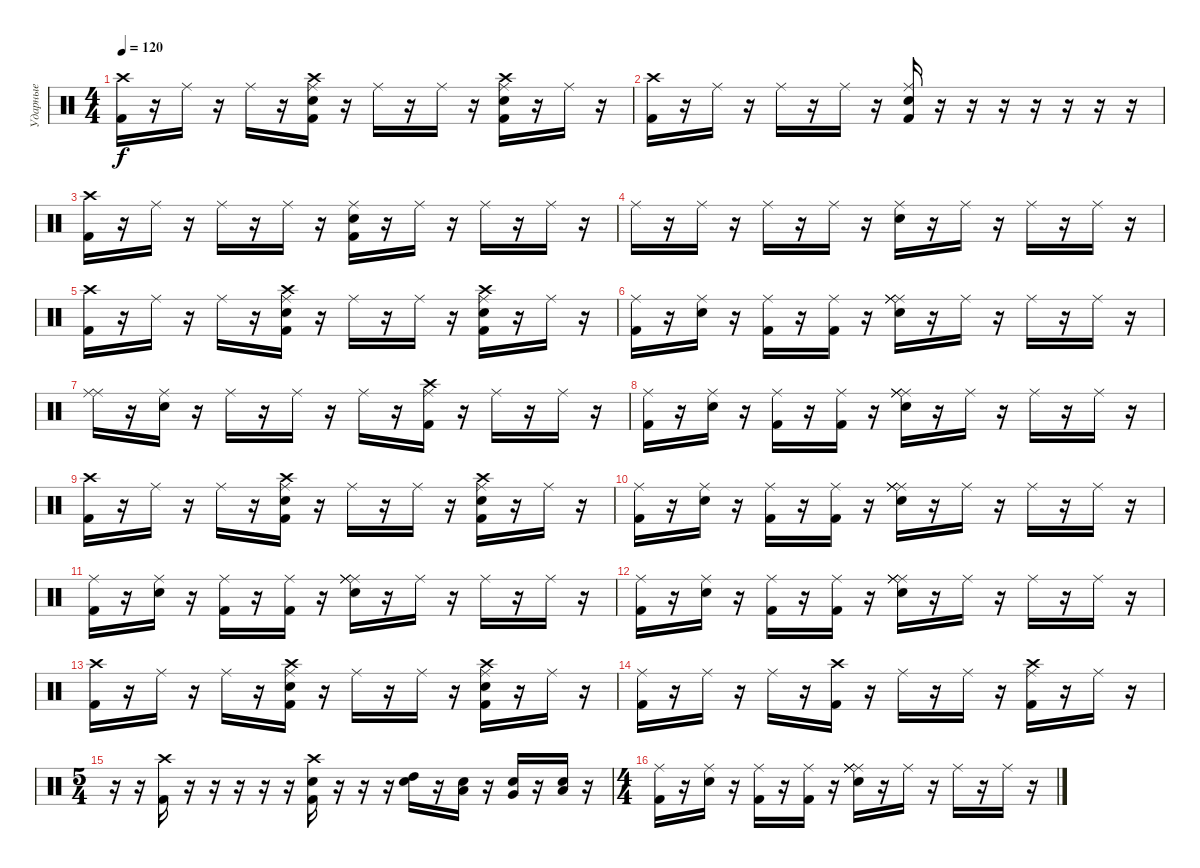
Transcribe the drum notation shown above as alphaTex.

\track ("Ударные" "Ударные") {instrument percussion}
\staff {score}
\articulation defaults
\ts (4 4)
\tempo 120
\clef neutral
\ks c
("Crash high (hit)" "Kick (hit) 2").16{dy f} r.16 "Ride (middle)".16 r.16 "Ride (middle)".16 r.16 ("Crash high (hit)" "Snare (hit) 2" "Kick (hit) 2" "Ride (middle)").16 r.16 "Ride (middle)".16 r.16 "Ride (middle)".16 r.16 ("Crash high (hit)" "Kick (hit) 2" "Snare (hit) 2" "Ride (middle)").16 r.16 "Ride (middle)".16 r.16 |
("Kick (hit) 2" "Crash high (hit)").16 r.16 "Ride (middle)".16 r.16 "Ride (middle)".16 r.16 "Ride (middle)".16 r.16 ("Snare (hit) 2" "Ride (middle)" "Kick (hit) 2").16 r.16 r.16 r.16 r.16 r.16 r.16 r.16 |
("Kick (hit) 2" "Crash high (hit)").16 r.16 "Ride (middle)".16 r.16 "Ride (middle)".16 r.16 "Ride (middle)".16 r.16 ("Snare (hit) 2" "Ride (middle)" "Kick (hit) 2").16 r.16 "Ride (middle)".16 r.16 "Ride (middle)".16 r.16 "Ride (middle)".16 r.16 |
"Ride (middle)".16 r.16 "Ride (middle)".16 r.16 "Ride (middle)".16 r.16 "Ride (middle)".16 r.16 ("Snare (hit) 2" "Ride (middle)").16 r.16 "Ride (middle)".16 r.16 "Ride (middle)".16 r.16 "Ride (middle)".16 r.16 |
("Crash high (hit)" "Kick (hit) 2").16 r.16 "Ride (middle)".16 r.16 "Ride (middle)".16 r.16 ("Crash high (hit)" "Snare (hit) 2" "Kick (hit) 2" "Ride (middle)").16 r.16 "Ride (middle)".16 r.16 "Ride (middle)".16 r.16 ("Crash high (hit)" "Kick (hit) 2" "Snare (hit) 2" "Ride (middle)").16 r.16 "Ride (middle)".16 r.16 |
("Ride (middle)" "Kick (hit) 2").16 r.16 ("Ride (middle)" "Snare (hit) 2").16 r.16 ("Ride (middle)" "Kick (hit) 2").16 r.16 ("Ride (middle)" "Kick (hit) 2").16 r.16 ("Ride (middle)" "Ride (middle)" "Ride (middle)" "Ride (middle)" "Snare (hit) 2").16 r.16 "Ride (middle)".16 r.16 "Ride (middle)".16 r.16 "Ride (middle)".16 r.16 |
("Ride (middle)" "Ride (middle)").16 r.16 ("Ride (middle)" "Snare (hit) 2").16 r.16 "Ride (middle)".16 r.16 "Ride (middle)".16 r.16 "Ride (middle)".16 r.16 ("Ride (middle)" "Kick (hit) 2" "Crash high (hit)").16 r.16 "Ride (middle)".16 r.16 "Ride (middle)".16 r.16 |
("Ride (middle)" "Kick (hit) 2").16 r.16 ("Ride (middle)" "Snare (hit) 2").16 r.16 ("Ride (middle)" "Kick (hit) 2").16 r.16 ("Ride (middle)" "Kick (hit) 2").16 r.16 ("Ride (middle)" "Ride (middle)" "Ride (middle)" "Ride (middle)" "Snare (hit) 2").16 r.16 "Ride (middle)".16 r.16 "Ride (middle)".16 r.16 "Ride (middle)".16 r.16 |
("Crash high (hit)" "Kick (hit) 2").16 r.16 "Ride (middle)".16 r.16 "Ride (middle)".16 r.16 ("Crash high (hit)" "Snare (hit) 2" "Kick (hit) 2" "Ride (middle)").16 r.16 "Ride (middle)".16 r.16 "Ride (middle)".16 r.16 ("Crash high (hit)" "Kick (hit) 2" "Snare (hit) 2" "Ride (middle)").16 r.16 "Ride (middle)".16 r.16 |
("Ride (middle)" "Kick (hit) 2").16 r.16 ("Ride (middle)" "Snare (hit) 2").16 r.16 ("Ride (middle)" "Kick (hit) 2").16 r.16 ("Ride (middle)" "Kick (hit) 2").16 r.16 ("Ride (middle)" "Ride (middle)" "Ride (middle)" "Ride (middle)" "Snare (hit) 2").16 r.16 "Ride (middle)".16 r.16 "Ride (middle)".16 r.16 "Ride (middle)".16 r.16 |
("Ride (middle)" "Kick (hit) 2").16 r.16 ("Ride (middle)" "Snare (hit) 2").16 r.16 ("Ride (middle)" "Kick (hit) 2").16 r.16 ("Ride (middle)" "Kick (hit) 2").16 r.16 ("Ride (middle)" "Ride (middle)" "Ride (middle)" "Ride (middle)" "Snare (hit) 2").16 r.16 "Ride (middle)".16 r.16 "Ride (middle)".16 r.16 "Ride (middle)".16 r.16 |
("Ride (middle)" "Kick (hit) 2").16 r.16 ("Ride (middle)" "Snare (hit) 2").16 r.16 ("Ride (middle)" "Kick (hit) 2").16 r.16 ("Ride (middle)" "Kick (hit) 2").16 r.16 ("Ride (middle)" "Ride (middle)" "Ride (middle)" "Ride (middle)" "Snare (hit) 2").16 r.16 "Ride (middle)".16 r.16 "Ride (middle)".16 r.16 "Ride (middle)".16 r.16 |
("Crash high (hit)" "Kick (hit) 2").16 r.16 "Ride (middle)".16 r.16 "Ride (middle)".16 r.16 ("Crash high (hit)" "Snare (hit) 2" "Kick (hit) 2" "Ride (middle)").16 r.16 "Ride (middle)".16 r.16 "Ride (middle)".16 r.16 ("Crash high (hit)" "Kick (hit) 2" "Snare (hit) 2" "Ride (middle)").16 r.16 "Ride (middle)".16 r.16 |
("Ride (middle)" "Kick (hit) 2").16 r.16 "Ride (middle)".16 r.16 "Ride (middle)".16 r.16 ("Kick (hit) 2" "Crash high (hit)").16 r.16 "Ride (middle)".16 r.16 "Ride (middle)".16 r.16 ("Ride (middle)" "Kick (hit) 2" "Crash high (hit)").16 r.16 "Ride (middle)".16 r.16 |
\ts (5 4)
r.16 r.16 ("Crash high (hit)" "Kick (hit) 2").16 r.16 r.16 r.16 r.16 r.16 ("Crash high (hit)" "Kick (hit) 2" "Snare (hit) 2").16 r.16 r.16 r.16 ("Snare (hit) 2" "High Tom (hit)").16 r.16 ("Snare (hit) 2" "Low Tom (hit)").16 r.16 ("Snare (hit) 2" "Very Low Tom (hit)").16 r.16 ("Snare (hit) 2" "Low Floor Tom (hit)").16 r.16 |
\ts (4 4)
("Ride (middle)" "Kick (hit) 2").16 r.16 ("Ride (middle)" "Snare (hit) 2").16 r.16 ("Ride (middle)" "Kick (hit) 2").16 r.16 ("Ride (middle)" "Kick (hit) 2").16 r.16 ("Ride (middle)" "Ride (middle)" "Ride (middle)" "Ride (middle)" "Snare (hit) 2").16 r.16 "Ride (middle)".16 r.16 "Ride (middle)".16 r.16 "Ride (middle)".16 r.16
